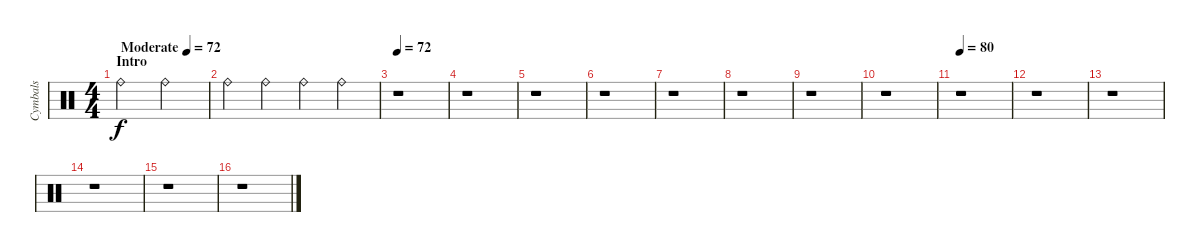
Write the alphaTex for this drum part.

\track ("Cymbals" "Cymbals") {instrument percussion}
\staff {score}
\articulation defaults
\ts (4 4)
\section ("" "Intro")
\tempo (72 "Moderate")
\tempo 124
\tempo (72 "Moderate")
\clef neutral
\ks c "Ride (bell)".2{dy f} "Ride (bell)".2
|
"Ride (bell)".4 "Ride (bell)".4 "Ride (bell)".4 "Ride (bell)".4 |
\tempo 72
r.1 |
r.1 |
r.1 |
r.1 |
r.1 |
r.1 |
r.1 |
r.1 |
\tempo 80
r.1 |
r.1 |
r.1 |
r.1 |
r.1 |
r.1
